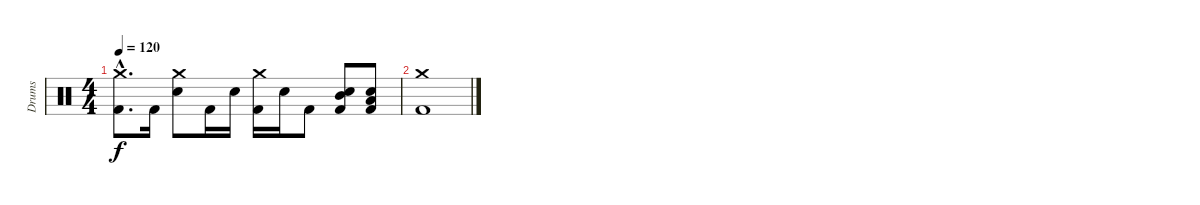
\track ("Drums" "Drums") {instrument percussion}
\staff {score}
\articulation defaults
\ts (4 4)
\tempo 120
\clef neutral
\ks c
("Crash medium (hit)"{hac} "Kick (hit) 2"{hac}).8{d dy f} "Kick (hit) 2".16 ("Crash medium (hit)" "Electric Snare (hit)").8 "Kick (hit) 2".16 "Electric Snare (hit)".16 ("Crash medium (hit)" "Kick (hit) 2").16 "Electric Snare (hit)".16 "Kick (hit) 2".8 ("Electric Snare (hit)" "Kick (hit) 2" "Mid Tom (hit)").8 ("Electric Snare (hit)" "Kick (hit) 2" "Low Tom (hit)").8 |
("Crash medium (hit)" "Kick (hit) 2").1
